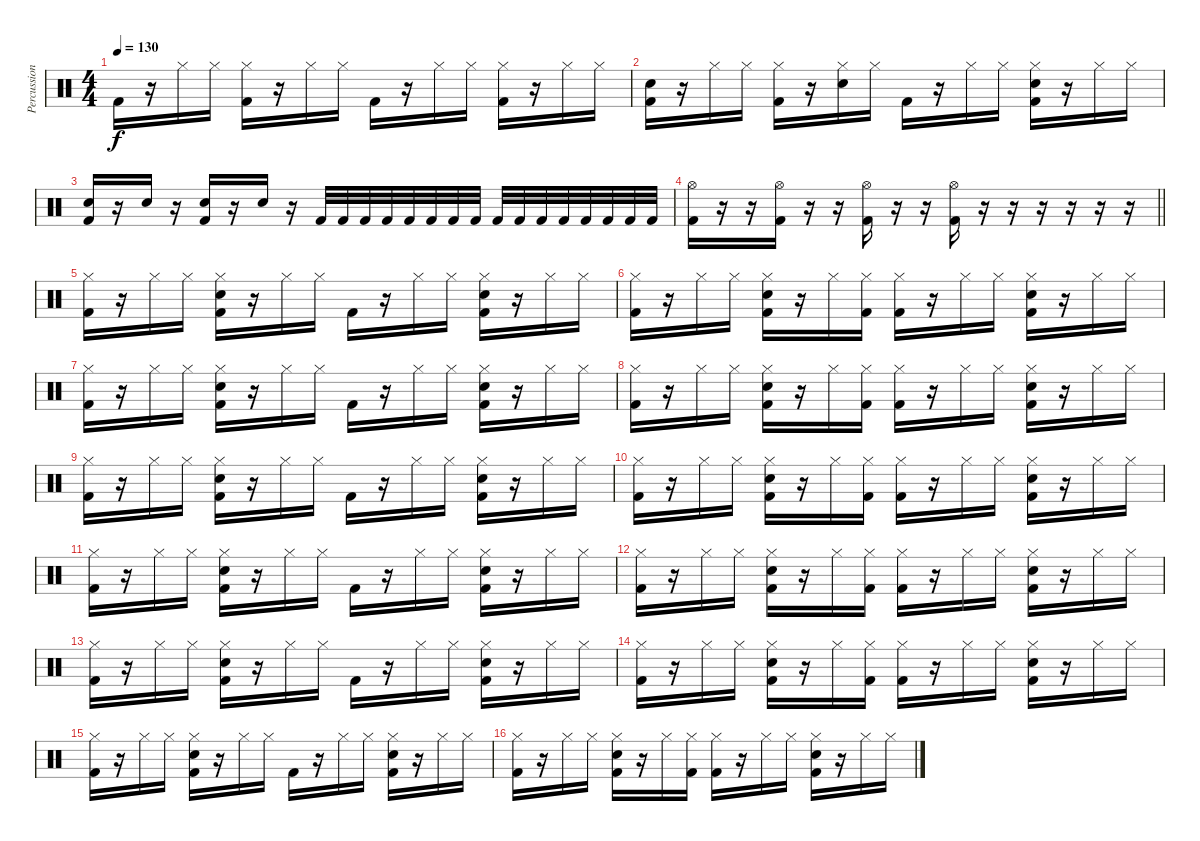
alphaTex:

\track ("Percussion" "Percussion") {instrument percussion}
\staff {score}
\articulation defaults
\ts (4 4)
\tempo 130
\clef neutral
\ks c "Kick (hit) 2".16{dy f}
r.16 "Hi-Hat (closed)".16 "Hi-Hat (closed)".16 ("Hi-Hat (closed)" "Kick (hit) 2").16 r.16 "Hi-Hat (closed)".16 "Hi-Hat (closed)".16 "Kick (hit) 2".16 r.16 "Hi-Hat (closed)".16 "Hi-Hat (closed)".16 ("Hi-Hat (closed)" "Kick (hit) 2").16 r.16 "Hi-Hat (closed)".16 "Hi-Hat (closed)".16 |
("Electric Snare (hit)" "Kick (hit) 2").16 r.16 "Hi-Hat (closed)".16 "Hi-Hat (closed)".16 ("Hi-Hat (closed)" "Kick (hit) 2").16 r.16 ("Hi-Hat (closed)" "Electric Snare (hit)").16 "Hi-Hat (closed)".16 "Kick (hit) 2".16 r.16 "Hi-Hat (closed)".16 "Hi-Hat (closed)".16 ("Hi-Hat (closed)" "Electric Snare (hit)" "Kick (hit) 2").16 r.16 "Hi-Hat (closed)".16 "Hi-Hat (closed)".16 |
("Electric Snare (hit)" "Kick (hit) 2").16 r.16 "Electric Snare (hit)".16 r.16 ("Electric Snare (hit)" "Kick (hit) 2").16 r.16 "Electric Snare (hit)".16 r.16 "Kick (hit) 2".32 "Kick (hit) 2".32 "Kick (hit) 2".32 "Kick (hit) 2".32 "Kick (hit) 2".32 "Kick (hit) 2".32 "Kick (hit) 2".32 "Kick (hit) 2".32 "Kick (hit) 2".32 "Kick (hit) 2".32 "Kick (hit) 2".32 "Kick (hit) 2".32 "Kick (hit) 2".32 "Kick (hit) 2".32 "Kick (hit) 2".32 "Kick (hit) 2".32 |
\barLineRight lightlight
("Hi-Hat (open)" "Kick (hit) 2").16 r.16 r.16 ("Hi-Hat (open)" "Kick (hit) 2").16 r.16 r.16 ("Hi-Hat (open)" "Kick (hit) 2").16 r.16 r.16 ("Hi-Hat (open)" "Kick (hit) 2").16 r.16 r.16 r.16 r.16 r.16 r.16 |
("Hi-Hat (closed)" "Kick (hit) 2").16 r.16 "Hi-Hat (closed)".16 "Hi-Hat (closed)".16 ("Hi-Hat (closed)" "Electric Snare (hit)" "Kick (hit) 2").16 r.16 "Hi-Hat (closed)".16 "Hi-Hat (closed)".16 "Kick (hit) 2".16 r.16 "Hi-Hat (closed)".16 "Hi-Hat (closed)".16 ("Hi-Hat (closed)" "Electric Snare (hit)" "Kick (hit) 2").16 r.16 "Hi-Hat (closed)".16 "Hi-Hat (closed)".16 |
("Hi-Hat (closed)" "Kick (hit) 2").16 r.16 "Hi-Hat (closed)".16 "Hi-Hat (closed)".16 ("Hi-Hat (closed)" "Electric Snare (hit)" "Kick (hit) 2").16 r.16 "Hi-Hat (closed)".16 ("Hi-Hat (closed)" "Kick (hit) 2").16 ("Hi-Hat (closed)" "Kick (hit) 2").16 r.16 "Hi-Hat (closed)".16 "Hi-Hat (closed)".16 ("Hi-Hat (closed)" "Electric Snare (hit)" "Kick (hit) 2").16 r.16 "Hi-Hat (closed)".16 "Hi-Hat (closed)".16 |
("Hi-Hat (closed)" "Kick (hit) 2").16 r.16 "Hi-Hat (closed)".16 "Hi-Hat (closed)".16 ("Hi-Hat (closed)" "Electric Snare (hit)" "Kick (hit) 2").16 r.16 "Hi-Hat (closed)".16 "Hi-Hat (closed)".16 "Kick (hit) 2".16 r.16 "Hi-Hat (closed)".16 "Hi-Hat (closed)".16 ("Hi-Hat (closed)" "Electric Snare (hit)" "Kick (hit) 2").16 r.16 "Hi-Hat (closed)".16 "Hi-Hat (closed)".16 |
("Hi-Hat (closed)" "Kick (hit) 2").16 r.16 "Hi-Hat (closed)".16 "Hi-Hat (closed)".16 ("Hi-Hat (closed)" "Electric Snare (hit)" "Kick (hit) 2").16 r.16 "Hi-Hat (closed)".16 ("Hi-Hat (closed)" "Kick (hit) 2").16 ("Hi-Hat (closed)" "Kick (hit) 2").16 r.16 "Hi-Hat (closed)".16 "Hi-Hat (closed)".16 ("Hi-Hat (closed)" "Electric Snare (hit)" "Kick (hit) 2").16 r.16 "Hi-Hat (closed)".16 "Hi-Hat (closed)".16 |
("Hi-Hat (closed)" "Kick (hit) 2").16 r.16 "Hi-Hat (closed)".16 "Hi-Hat (closed)".16 ("Hi-Hat (closed)" "Electric Snare (hit)" "Kick (hit) 2").16 r.16 "Hi-Hat (closed)".16 "Hi-Hat (closed)".16 "Kick (hit) 2".16 r.16 "Hi-Hat (closed)".16 "Hi-Hat (closed)".16 ("Hi-Hat (closed)" "Electric Snare (hit)" "Kick (hit) 2").16 r.16 "Hi-Hat (closed)".16 "Hi-Hat (closed)".16 |
("Hi-Hat (closed)" "Kick (hit) 2").16 r.16 "Hi-Hat (closed)".16 "Hi-Hat (closed)".16 ("Hi-Hat (closed)" "Electric Snare (hit)" "Kick (hit) 2").16 r.16 "Hi-Hat (closed)".16 ("Hi-Hat (closed)" "Kick (hit) 2").16 ("Hi-Hat (closed)" "Kick (hit) 2").16 r.16 "Hi-Hat (closed)".16 "Hi-Hat (closed)".16 ("Hi-Hat (closed)" "Electric Snare (hit)" "Kick (hit) 2").16 r.16 "Hi-Hat (closed)".16 "Hi-Hat (closed)".16 |
("Hi-Hat (closed)" "Kick (hit) 2").16 r.16 "Hi-Hat (closed)".16 "Hi-Hat (closed)".16 ("Hi-Hat (closed)" "Electric Snare (hit)" "Kick (hit) 2").16 r.16 "Hi-Hat (closed)".16 "Hi-Hat (closed)".16 "Kick (hit) 2".16 r.16 "Hi-Hat (closed)".16 "Hi-Hat (closed)".16 ("Hi-Hat (closed)" "Electric Snare (hit)" "Kick (hit) 2").16 r.16 "Hi-Hat (closed)".16 "Hi-Hat (closed)".16 |
("Hi-Hat (closed)" "Kick (hit) 2").16 r.16 "Hi-Hat (closed)".16 "Hi-Hat (closed)".16 ("Hi-Hat (closed)" "Electric Snare (hit)" "Kick (hit) 2").16 r.16 "Hi-Hat (closed)".16 ("Hi-Hat (closed)" "Kick (hit) 2").16 ("Hi-Hat (closed)" "Kick (hit) 2").16 r.16 "Hi-Hat (closed)".16 "Hi-Hat (closed)".16 ("Hi-Hat (closed)" "Electric Snare (hit)" "Kick (hit) 2").16 r.16 "Hi-Hat (closed)".16 "Hi-Hat (closed)".16 |
("Hi-Hat (closed)" "Kick (hit) 2").16 r.16 "Hi-Hat (closed)".16 "Hi-Hat (closed)".16 ("Hi-Hat (closed)" "Electric Snare (hit)" "Kick (hit) 2").16 r.16 "Hi-Hat (closed)".16 "Hi-Hat (closed)".16 "Kick (hit) 2".16 r.16 "Hi-Hat (closed)".16 "Hi-Hat (closed)".16 ("Hi-Hat (closed)" "Electric Snare (hit)" "Kick (hit) 2").16 r.16 "Hi-Hat (closed)".16 "Hi-Hat (closed)".16 |
("Hi-Hat (closed)" "Kick (hit) 2").16 r.16 "Hi-Hat (closed)".16 "Hi-Hat (closed)".16 ("Hi-Hat (closed)" "Electric Snare (hit)" "Kick (hit) 2").16 r.16 "Hi-Hat (closed)".16 ("Hi-Hat (closed)" "Kick (hit) 2").16 ("Hi-Hat (closed)" "Kick (hit) 2").16 r.16 "Hi-Hat (closed)".16 "Hi-Hat (closed)".16 ("Hi-Hat (closed)" "Electric Snare (hit)" "Kick (hit) 2").16 r.16 "Hi-Hat (closed)".16 "Hi-Hat (closed)".16 |
("Hi-Hat (closed)" "Kick (hit) 2").16 r.16 "Hi-Hat (closed)".16 "Hi-Hat (closed)".16 ("Hi-Hat (closed)" "Electric Snare (hit)" "Kick (hit) 2").16 r.16 "Hi-Hat (closed)".16 "Hi-Hat (closed)".16 "Kick (hit) 2".16 r.16 "Hi-Hat (closed)".16 "Hi-Hat (closed)".16 ("Hi-Hat (closed)" "Electric Snare (hit)" "Kick (hit) 2").16 r.16 "Hi-Hat (closed)".16 "Hi-Hat (closed)".16 |
("Hi-Hat (closed)" "Kick (hit) 2").16 r.16 "Hi-Hat (closed)".16 "Hi-Hat (closed)".16 ("Hi-Hat (closed)" "Electric Snare (hit)" "Kick (hit) 2").16 r.16 "Hi-Hat (closed)".16 ("Hi-Hat (closed)" "Kick (hit) 2").16 ("Hi-Hat (closed)" "Kick (hit) 2").16 r.16 "Hi-Hat (closed)".16 "Hi-Hat (closed)".16 ("Hi-Hat (closed)" "Electric Snare (hit)" "Kick (hit) 2").16 r.16 "Hi-Hat (closed)".16 "Hi-Hat (closed)".16
